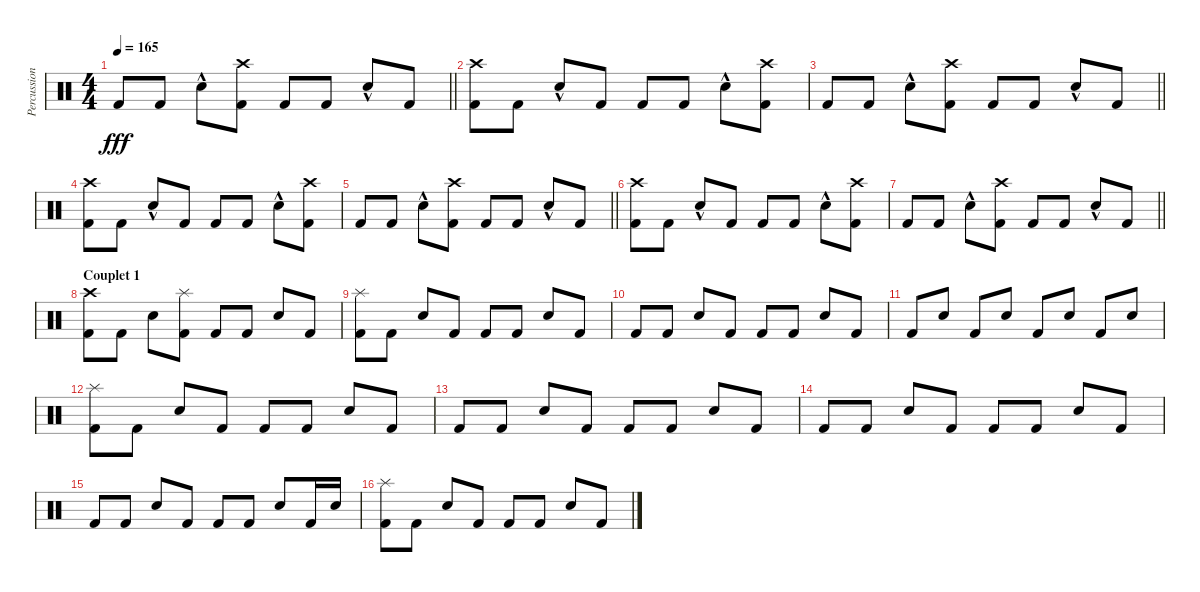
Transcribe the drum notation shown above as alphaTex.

\track ("Percussions" "Percussion") {instrument percussion}
\staff {score}
\articulation defaults
\ts (4 4)
\tempo 165
\clef neutral
\barLineRight lightlight
\ks c "Kick (hit) 2".8{dy fff} "Kick (hit) 2".8 "Snare (hit) 2"{hac}.8
("Crash high (hit)" "Kick (hit) 2").8 "Kick (hit) 2".8 "Kick (hit) 2".8 "Snare (hit) 2"{hac}.8 "Kick (hit) 2".8 |
("Crash high (hit)" "Kick (hit) 2").8 "Kick (hit) 2".8 "Snare (hit) 2"{hac}.8 "Kick (hit) 2".8 "Kick (hit) 2".8 "Kick (hit) 2".8 "Snare (hit) 2"{hac}.8 ("Crash high (hit)" "Kick (hit) 2").8 |
\barLineRight lightlight "Kick (hit) 2".8 "Kick (hit) 2".8 "Snare (hit) 2"{hac}.8
("Crash high (hit)" "Kick (hit) 2").8 "Kick (hit) 2".8 "Kick (hit) 2".8 "Snare (hit) 2"{hac}.8 "Kick (hit) 2".8 |
("Crash high (hit)" "Kick (hit) 2").8 "Kick (hit) 2".8 "Snare (hit) 2"{hac}.8 "Kick (hit) 2".8 "Kick (hit) 2".8 "Kick (hit) 2".8 "Snare (hit) 2"{hac}.8 ("Crash high (hit)" "Kick (hit) 2").8 |
\barLineRight lightlight "Kick (hit) 2".8 "Kick (hit) 2".8 "Snare (hit) 2"{hac}.8
("Crash high (hit)" "Kick (hit) 2").8 "Kick (hit) 2".8 "Kick (hit) 2".8 "Snare (hit) 2"{hac}.8 "Kick (hit) 2".8 |
("Crash high (hit)" "Kick (hit) 2").8 "Kick (hit) 2".8 "Snare (hit) 2"{hac}.8 "Kick (hit) 2".8 "Kick (hit) 2".8 "Kick (hit) 2".8 "Snare (hit) 2"{hac}.8 ("Crash high (hit)" "Kick (hit) 2").8 |
\barLineRight lightlight "Kick (hit) 2".8 "Kick (hit) 2".8 "Snare (hit) 2"{hac}.8
("Crash high (hit)" "Kick (hit) 2").8 "Kick (hit) 2".8 "Kick (hit) 2".8 "Snare (hit) 2"{hac}.8 "Kick (hit) 2".8 |
\section ("" "Couplet 1")
("Crash high (hit)" "Kick (hit) 2").8 "Kick (hit) 2".8 "Electric Snare (hit)".8 ("Splash (hit)" "Kick (hit) 2").8 "Kick (hit) 2".8 "Kick (hit) 2".8 "Electric Snare (hit)".8 "Kick (hit) 2".8 |
("Splash (hit)" "Kick (hit) 2").8 "Kick (hit) 2".8 "Electric Snare (hit)".8 "Kick (hit) 2".8 "Kick (hit) 2".8 "Kick (hit) 2".8 "Electric Snare (hit)".8 "Kick (hit) 2".8 |
"Kick (hit) 2".8 "Kick (hit) 2".8 "Electric Snare (hit)".8 "Kick (hit) 2".8 "Kick (hit) 2".8 "Kick (hit) 2".8 "Electric Snare (hit)".8 "Kick (hit) 2".8 |
"Kick (hit) 2".8 "Electric Snare (hit)".8 "Kick (hit) 2".8 "Electric Snare (hit)".8 "Kick (hit) 2".8 "Electric Snare (hit)".8 "Kick (hit) 2".8 "Electric Snare (hit)".8 |
("Splash (hit)" "Kick (hit) 2").8 "Kick (hit) 2".8 "Electric Snare (hit)".8 "Kick (hit) 2".8 "Kick (hit) 2".8 "Kick (hit) 2".8 "Electric Snare (hit)".8 "Kick (hit) 2".8 |
"Kick (hit) 2".8 "Kick (hit) 2".8 "Electric Snare (hit)".8 "Kick (hit) 2".8 "Kick (hit) 2".8 "Kick (hit) 2".8 "Electric Snare (hit)".8 "Kick (hit) 2".8 |
"Kick (hit) 2".8 "Kick (hit) 2".8 "Electric Snare (hit)".8 "Kick (hit) 2".8 "Kick (hit) 2".8 "Kick (hit) 2".8 "Electric Snare (hit)".8 "Kick (hit) 2".8 |
"Kick (hit) 2".8 "Kick (hit) 2".8 "Electric Snare (hit)".8 "Kick (hit) 2".8 "Kick (hit) 2".8 "Kick (hit) 2".8 "Electric Snare (hit)".8 "Kick (hit) 2".16 "Electric Snare (hit)".16 |
("Splash (hit)" "Kick (hit) 2").8 "Kick (hit) 2".8 "Electric Snare (hit)".8 "Kick (hit) 2".8 "Kick (hit) 2".8 "Kick (hit) 2".8 "Electric Snare (hit)".8 "Kick (hit) 2".8
